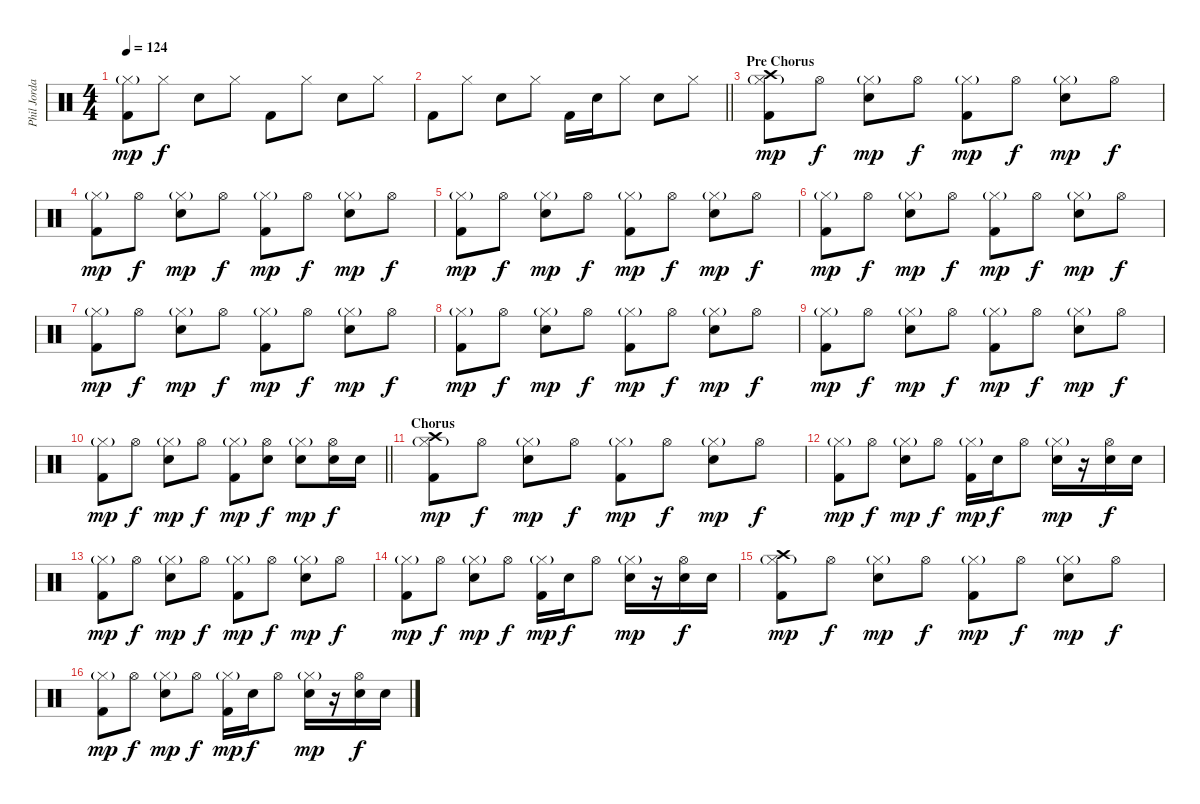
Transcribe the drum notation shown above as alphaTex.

\track ("Phil Jordan (Drums)" "Phil Jorda") {instrument percussion}
\staff {score}
\articulation defaults
\ts (4 4)
\tempo 124
\clef neutral
\ks c
("Hi-Hat (closed)"{g} "Kick (hit) 2").8{dy mp} "Hi-Hat (closed)".8{dy f} "Electric Snare (hit)".8 "Hi-Hat (closed)".8 "Kick (hit) 2".8 "Hi-Hat (closed)".8 "Electric Snare (hit)".8 "Hi-Hat (closed)".8 |
\barLineRight lightlight "Kick (hit) 2".8 "Hi-Hat (closed)".8 "Electric Snare (hit)".8 "Hi-Hat (closed)".8 "Kick (hit) 2".16 "Electric Snare (hit)".16 "Hi-Hat (closed)".8 "Electric Snare (hit)".8 "Hi-Hat (closed)".8
|
\section ("" "Pre Chorus")
("Crash high (hit)" "Hi-Hat (closed)"{g} "Kick (hit) 2").8{dy mp} "Hi-Hat (open)".8{dy f} ("Hi-Hat (closed)"{g} "Electric Snare (hit)").8{dy mp} "Hi-Hat (open)".8{dy f} ("Hi-Hat (closed)"{g} "Kick (hit) 2").8{dy mp} "Hi-Hat (open)".8{dy f} ("Hi-Hat (closed)"{g} "Electric Snare (hit)").8{dy mp} "Hi-Hat (open)".8{dy f} |
("Hi-Hat (closed)"{g} "Kick (hit) 2").8{dy mp} "Hi-Hat (open)".8{dy f} ("Hi-Hat (closed)"{g} "Electric Snare (hit)").8{dy mp} "Hi-Hat (open)".8{dy f} ("Hi-Hat (closed)"{g} "Kick (hit) 2").8{dy mp} "Hi-Hat (open)".8{dy f} ("Hi-Hat (closed)"{g} "Electric Snare (hit)").8{dy mp} "Hi-Hat (open)".8{dy f} |
("Hi-Hat (closed)"{g} "Kick (hit) 2").8{dy mp} "Hi-Hat (open)".8{dy f} ("Hi-Hat (closed)"{g} "Electric Snare (hit)").8{dy mp} "Hi-Hat (open)".8{dy f} ("Hi-Hat (closed)"{g} "Kick (hit) 2").8{dy mp} "Hi-Hat (open)".8{dy f} ("Hi-Hat (closed)"{g} "Electric Snare (hit)").8{dy mp} "Hi-Hat (open)".8{dy f} |
("Hi-Hat (closed)"{g} "Kick (hit) 2").8{dy mp} "Hi-Hat (open)".8{dy f} ("Hi-Hat (closed)"{g} "Electric Snare (hit)").8{dy mp} "Hi-Hat (open)".8{dy f} ("Hi-Hat (closed)"{g} "Kick (hit) 2").8{dy mp} "Hi-Hat (open)".8{dy f} ("Hi-Hat (closed)"{g} "Electric Snare (hit)").8{dy mp} "Hi-Hat (open)".8{dy f} |
("Hi-Hat (closed)"{g} "Kick (hit) 2").8{dy mp} "Hi-Hat (open)".8{dy f} ("Hi-Hat (closed)"{g} "Electric Snare (hit)").8{dy mp} "Hi-Hat (open)".8{dy f} ("Hi-Hat (closed)"{g} "Kick (hit) 2").8{dy mp} "Hi-Hat (open)".8{dy f} ("Hi-Hat (closed)"{g} "Electric Snare (hit)").8{dy mp} "Hi-Hat (open)".8{dy f} |
("Hi-Hat (closed)"{g} "Kick (hit) 2").8{dy mp} "Hi-Hat (open)".8{dy f} ("Hi-Hat (closed)"{g} "Electric Snare (hit)").8{dy mp} "Hi-Hat (open)".8{dy f} ("Hi-Hat (closed)"{g} "Kick (hit) 2").8{dy mp} "Hi-Hat (open)".8{dy f} ("Hi-Hat (closed)"{g} "Electric Snare (hit)").8{dy mp} "Hi-Hat (open)".8{dy f} |
("Hi-Hat (closed)"{g} "Kick (hit) 2").8{dy mp} "Hi-Hat (open)".8{dy f} ("Hi-Hat (closed)"{g} "Electric Snare (hit)").8{dy mp} "Hi-Hat (open)".8{dy f} ("Hi-Hat (closed)"{g} "Kick (hit) 2").8{dy mp} "Hi-Hat (open)".8{dy f} ("Hi-Hat (closed)"{g} "Electric Snare (hit)").8{dy mp} "Hi-Hat (open)".8{dy f} |
\barLineRight lightlight
("Hi-Hat (closed)"{g} "Kick (hit) 2").8{dy mp} "Hi-Hat (open)".8{dy f} ("Hi-Hat (closed)"{g} "Electric Snare (hit)").8{dy mp} "Hi-Hat (open)".8{dy f} ("Hi-Hat (closed)"{g} "Kick (hit) 2").8{dy mp} ("Hi-Hat (open)" "Electric Snare (hit)").8{dy f} ("Hi-Hat (closed)"{g} "Electric Snare (hit)").8{dy mp} ("Hi-Hat (open)" "Electric Snare (hit)").16{dy f} "Electric Snare (hit)".16 |
\section ("" "Chorus")
("Crash high (hit)" "Hi-Hat (closed)"{g} "Kick (hit) 2").8{dy mp} "Hi-Hat (open)".8{dy f} ("Hi-Hat (closed)"{g} "Electric Snare (hit)").8{dy mp} "Hi-Hat (open)".8{dy f} ("Hi-Hat (closed)"{g} "Kick (hit) 2").8{dy mp} "Hi-Hat (open)".8{dy f} ("Hi-Hat (closed)"{g} "Electric Snare (hit)").8{dy mp} "Hi-Hat (open)".8{dy f} |
("Hi-Hat (closed)"{g} "Kick (hit) 2").8{dy mp} "Hi-Hat (open)".8{dy f} ("Hi-Hat (closed)"{g} "Electric Snare (hit)").8{dy mp} "Hi-Hat (open)".8{dy f} ("Hi-Hat (closed)"{g} "Kick (hit) 2").16{dy mp} "Electric Snare (hit)".16{dy f} "Hi-Hat (open)".8 ("Hi-Hat (closed)"{g} "Electric Snare (hit)").16{dy mp} r.16 ("Hi-Hat (open)" "Electric Snare (hit)").16{dy f} "Electric Snare (hit)".16 |
("Hi-Hat (closed)"{g} "Kick (hit) 2").8{dy mp} "Hi-Hat (open)".8{dy f} ("Hi-Hat (closed)"{g} "Electric Snare (hit)").8{dy mp} "Hi-Hat (open)".8{dy f} ("Hi-Hat (closed)"{g} "Kick (hit) 2").8{dy mp} "Hi-Hat (open)".8{dy f} ("Hi-Hat (closed)"{g} "Electric Snare (hit)").8{dy mp} "Hi-Hat (open)".8{dy f} |
("Hi-Hat (closed)"{g} "Kick (hit) 2").8{dy mp} "Hi-Hat (open)".8{dy f} ("Hi-Hat (closed)"{g} "Electric Snare (hit)").8{dy mp} "Hi-Hat (open)".8{dy f} ("Hi-Hat (closed)"{g} "Kick (hit) 2").16{dy mp} "Electric Snare (hit)".16{dy f} "Hi-Hat (open)".8 ("Hi-Hat (closed)"{g} "Electric Snare (hit)").16{dy mp} r.16 ("Hi-Hat (open)" "Electric Snare (hit)").16{dy f} "Electric Snare (hit)".16 |
("Crash high (hit)" "Hi-Hat (closed)"{g} "Kick (hit) 2").8{dy mp} "Hi-Hat (open)".8{dy f} ("Hi-Hat (closed)"{g} "Electric Snare (hit)").8{dy mp} "Hi-Hat (open)".8{dy f} ("Hi-Hat (closed)"{g} "Kick (hit) 2").8{dy mp} "Hi-Hat (open)".8{dy f} ("Hi-Hat (closed)"{g} "Electric Snare (hit)").8{dy mp} "Hi-Hat (open)".8{dy f} |
("Hi-Hat (closed)"{g} "Kick (hit) 2").8{dy mp} "Hi-Hat (open)".8{dy f} ("Hi-Hat (closed)"{g} "Electric Snare (hit)").8{dy mp} "Hi-Hat (open)".8{dy f} ("Hi-Hat (closed)"{g} "Kick (hit) 2").16{dy mp} "Electric Snare (hit)".16{dy f} "Hi-Hat (open)".8 ("Hi-Hat (closed)"{g} "Electric Snare (hit)").16{dy mp} r.16 ("Hi-Hat (open)" "Electric Snare (hit)").16{dy f} "Electric Snare (hit)".16
